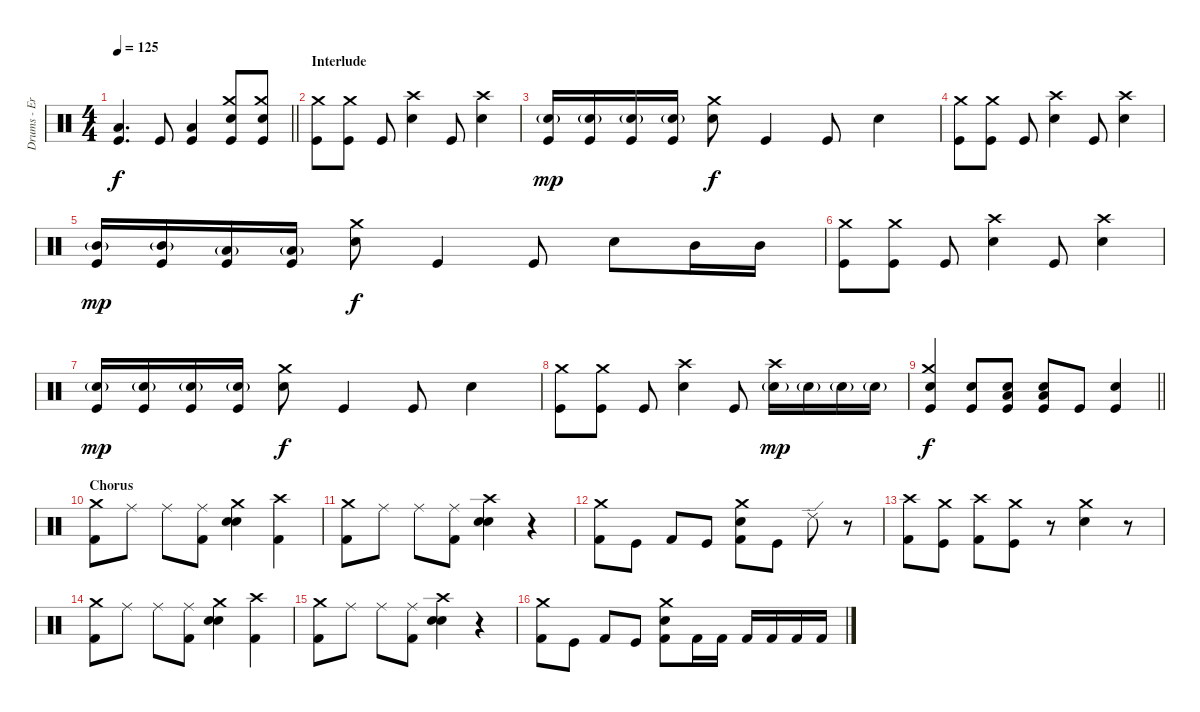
\track ("Drums - Eric Young" "Drums - Er") {instrument percussion}
\staff {score}
\articulation defaults
\ts (4 4)
\tempo 125
\clef neutral
\barLineRight lightlight
\ks c
("Low Tom (hit)" "Kick (hit)").4{d dy f} "Kick (hit)".8 ("Low Tom (hit)" "Kick (hit)").4 ("Crash medium (hit)" "Electric Snare (hit)" "Kick (hit)").8 ("Crash medium (hit)" "Electric Snare (hit)" "Kick (hit)").8 |
\section ("" "Interlude")
("Crash medium (hit)" "Kick (hit)").8 ("Crash medium (hit)" "Kick (hit)").8 "Kick (hit)".8 ("Crash high (hit)" "Electric Snare (hit)").4 "Kick (hit)".8 ("Crash high (hit)" "Electric Snare (hit)").4 |
("Snare (hit) 2"{g} "Kick (hit)").16{dy mp} ("Snare (hit) 2"{g} "Kick (hit)").16 ("Snare (hit) 2"{g} "Kick (hit)").16 ("Snare (hit) 2"{g} "Kick (hit)").16 ("Crash medium (hit)" "Electric Snare (hit)").8{dy f} "Kick (hit)".4 "Kick (hit)".8 "Electric Snare (hit)".4 |
("Crash medium (hit)" "Kick (hit)").8 ("Crash medium (hit)" "Kick (hit)").8 "Kick (hit)".8 ("Crash high (hit)" "Electric Snare (hit)").4 "Kick (hit)".8 ("Crash high (hit)" "Electric Snare (hit)").4 |
("Mid Tom (hit)"{g} "Kick (hit)").16{dy mp} ("Mid Tom (hit)"{g} "Kick (hit)").16 ("Low Tom (hit)"{g} "Kick (hit)").16 ("Low Tom (hit)"{g} "Kick (hit)").16 ("Crash medium (hit)" "Electric Snare (hit)").8{dy f} "Kick (hit)".4 "Kick (hit)".8 "Electric Snare (hit)".8 "Mid Tom (hit)".16 "Mid Tom (hit)".16 |
("Crash medium (hit)" "Kick (hit)").8 ("Crash medium (hit)" "Kick (hit)").8 "Kick (hit)".8 ("Crash high (hit)" "Electric Snare (hit)").4 "Kick (hit)".8 ("Crash high (hit)" "Electric Snare (hit)").4 |
("Snare (hit) 2"{g} "Kick (hit)").16{dy mp} ("Snare (hit) 2"{g} "Kick (hit)").16 ("Snare (hit) 2"{g} "Kick (hit)").16 ("Snare (hit) 2"{g} "Kick (hit)").16 ("Crash medium (hit)" "Electric Snare (hit)").8{dy f} "Kick (hit)".4 "Kick (hit)".8 "Electric Snare (hit)".4 |
("Crash medium (hit)" "Kick (hit)").8 ("Crash medium (hit)" "Kick (hit)").8 "Kick (hit)".8 ("Crash high (hit)" "Electric Snare (hit)").4 "Kick (hit)".8 ("Crash high (hit)" "Electric Snare (hit)"{g}).16{dy mp} "Electric Snare (hit)"{g}.16 "Electric Snare (hit)"{g}.16 "Electric Snare (hit)"{g}.16 |
\barLineRight lightlight
("Crash medium (hit)" "Electric Snare (hit)" "Kick (hit)").4{dy f} ("Snare (hit) 2" "Kick (hit)").8 ("Snare (hit) 2" "Low Tom (hit)" "Kick (hit)").8 ("Electric Snare (hit)" "Low Tom (hit)" "Kick (hit)").8 "Kick (hit)".8 ("Electric Snare (hit)" "Kick (hit)").4 |
\section ("" "Chorus")
("Crash medium (hit)" "Kick (hit) 2").8 "Ride (middle)".8 "Ride (middle)".8 ("Ride (middle)" "Kick (hit) 2").8 ("Crash medium (hit)" "Snare (hit) 2" "Electric Snare (hit)").4 ("Crash high (hit)" "Kick (hit) 2").4 |
("Crash medium (hit)" "Kick (hit) 2").8 "Ride (middle)".8 "Ride (middle)".8 ("Ride (middle)" "Kick (hit) 2").8 ("Crash high (hit)" "Electric Snare (hit)" "Snare (hit) 2").4 r.4 |
("Crash medium (hit)" "Kick (hit) 2").8 "Kick (hit)".8 "Kick (hit) 2".8 "Kick (hit)".8 ("Crash medium (hit)" "Electric Snare (hit)" "Kick (hit) 2").8 "Kick (hit)".8 "Ride (edge) 2".8 r.8 |
("Crash high (hit)" "Kick (hit) 2").8 ("Crash medium (hit)" "Kick (hit)").8 ("Crash high (hit)" "Kick (hit) 2").8 ("Crash medium (hit)" "Kick (hit)").8 r.8 ("Crash medium (hit)" "Electric Snare (hit)").4 r.8 |
("Crash medium (hit)" "Kick (hit) 2").8 "Ride (middle)".8 "Ride (middle)".8 ("Ride (middle)" "Kick (hit) 2").8 ("Crash medium (hit)" "Snare (hit) 2" "Electric Snare (hit)").4 ("Crash high (hit)" "Kick (hit) 2").4 |
("Crash medium (hit)" "Kick (hit) 2").8 "Ride (middle)".8 "Ride (middle)".8 ("Ride (middle)" "Kick (hit) 2").8 ("Crash high (hit)" "Electric Snare (hit)" "Snare (hit) 2").4 r.4 |
("Crash medium (hit)" "Kick (hit) 2").8 "Kick (hit)".8 "Kick (hit) 2".8 "Kick (hit)".8 ("Crash medium (hit)" "Electric Snare (hit)" "Kick (hit) 2").8 "Kick (hit) 2".16 "Kick (hit) 2".16 "Kick (hit) 2".16 "Kick (hit) 2".16 "Kick (hit) 2".16 "Kick (hit) 2".16
